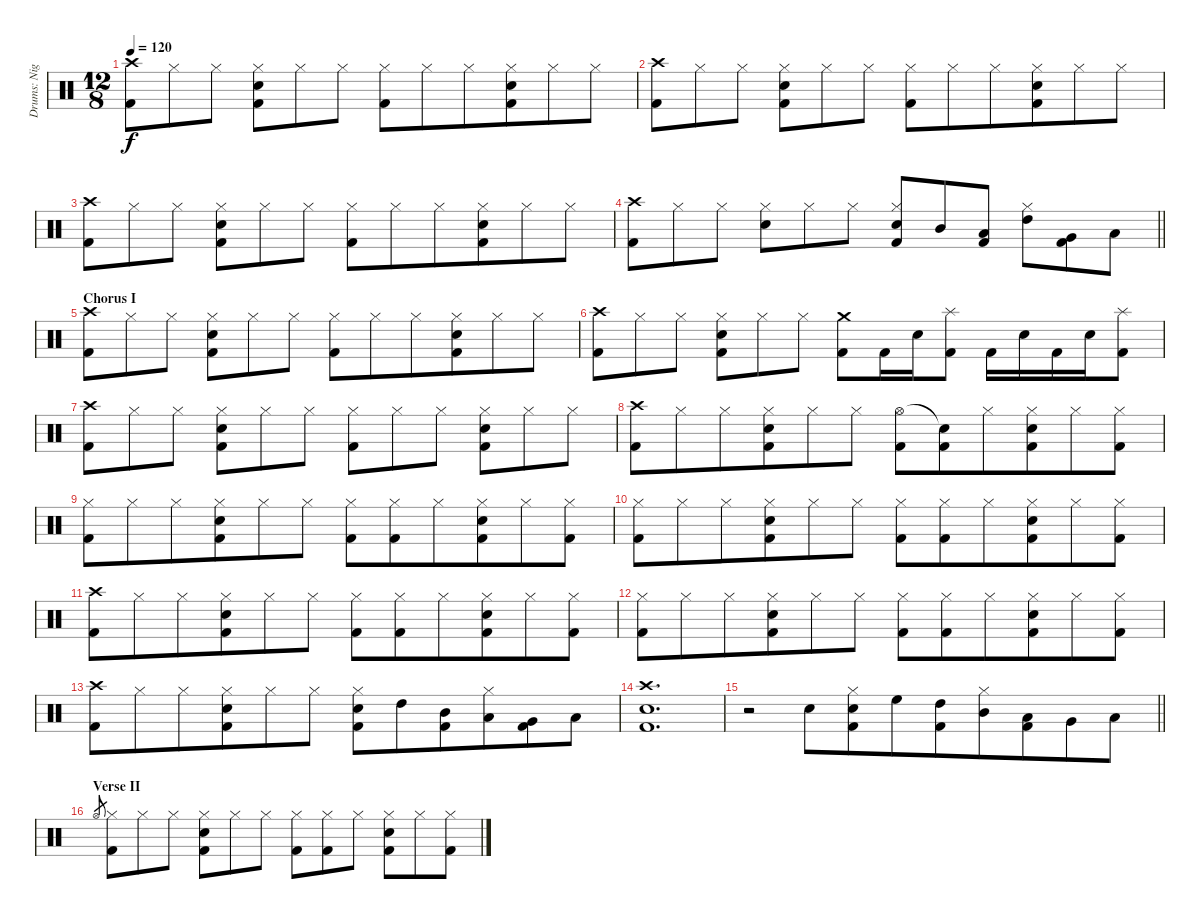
\track ("Drums: Nigel" "Drums: Nig") {instrument percussion}
\staff {score}
\articulation defaults
\ts (12 8)
\tempo 120
\clef neutral
\ks c
("Crash high (hit)" "Kick (hit) 2").8{dy f} "Hi-Hat (closed)".8{beam merge} "Hi-Hat (closed)".8 ("Hi-Hat (closed)" "Snare (hit) 2" "Kick (hit) 2").8{beam merge} "Hi-Hat (closed)".8 "Hi-Hat (closed)".8 ("Hi-Hat (closed)" "Kick (hit) 2").8 "Hi-Hat (closed)".8{beam merge} "Hi-Hat (closed)".8{beam merge} ("Hi-Hat (closed)" "Snare (hit) 2" "Kick (hit) 2").8{beam merge} "Hi-Hat (closed)".8 "Hi-Hat (closed)".8 |
("Crash high (hit)" "Kick (hit) 2").8 "Hi-Hat (closed)".8{beam merge} "Hi-Hat (closed)".8 ("Hi-Hat (closed)" "Snare (hit) 2" "Kick (hit) 2").8{beam merge} "Hi-Hat (closed)".8 "Hi-Hat (closed)".8 ("Hi-Hat (closed)" "Kick (hit) 2").8 "Hi-Hat (closed)".8{beam merge} "Hi-Hat (closed)".8{beam merge} ("Hi-Hat (closed)" "Snare (hit) 2" "Kick (hit) 2").8{beam merge} "Hi-Hat (closed)".8 "Hi-Hat (closed)".8 |
("Crash high (hit)" "Kick (hit) 2").8 "Hi-Hat (closed)".8{beam merge} "Hi-Hat (closed)".8 ("Hi-Hat (closed)" "Snare (hit) 2" "Kick (hit) 2").8{beam merge} "Hi-Hat (closed)".8 "Hi-Hat (closed)".8 ("Hi-Hat (closed)" "Kick (hit) 2").8 "Hi-Hat (closed)".8{beam merge} "Hi-Hat (closed)".8{beam merge} ("Hi-Hat (closed)" "Snare (hit) 2" "Kick (hit) 2").8{beam merge} "Hi-Hat (closed)".8 "Hi-Hat (closed)".8 |
\barLineRight lightlight
("Crash high (hit)" "Kick (hit) 2").8 "Hi-Hat (closed)".8 "Hi-Hat (closed)".8 ("Hi-Hat (closed)" "Snare (hit) 2").8 "Hi-Hat (closed)".8 "Hi-Hat (closed)".8 ("Hi-Hat (closed)" "Snare (hit) 2" "Kick (hit) 2").8 "Mid Tom (hit)".8 ("Low Tom (hit)" "Kick (hit) 2").8 ("Hi-Hat (closed)" "High Tom (hit)").8 ("Very Low Tom (hit)" "Kick (hit) 2").8 "Low Floor Tom (hit)".8 |
\section ("" "Chorus I")
("Crash high (hit)" "Kick (hit) 2").8 "Hi-Hat (closed)".8{beam merge} "Hi-Hat (closed)".8 ("Hi-Hat (closed)" "Snare (hit) 2" "Kick (hit) 2").8{beam merge} "Hi-Hat (closed)".8 "Hi-Hat (closed)".8 ("Hi-Hat (closed)" "Kick (hit) 2").8 "Hi-Hat (closed)".8{beam merge} "Hi-Hat (closed)".8{beam merge} ("Hi-Hat (closed)" "Snare (hit) 2" "Kick (hit) 2").8{beam merge} "Hi-Hat (closed)".8 "Hi-Hat (closed)".8 |
("Crash high (hit)" "Kick (hit) 2").8 "Hi-Hat (closed)".8{beam merge} "Hi-Hat (closed)".8 ("Hi-Hat (closed)" "Snare (hit) 2" "Kick (hit) 2").8{beam merge} "Hi-Hat (closed)".8 "Hi-Hat (closed)".8 ("Crash medium (hit)" "Kick (hit) 2").8 "Kick (hit) 2".16 "Snare (hit) 2".16 ("Splash (hit)" "Kick (hit) 2").8 "Kick (hit) 2".16 "Snare (hit) 2".16 "Kick (hit) 2".16 "Snare (hit) 2".16 ("Splash (hit)" "Kick (hit) 2").8 |
("Crash high (hit)" "Kick (hit) 2").8 "Hi-Hat (closed)".8{beam merge} "Hi-Hat (closed)".8 ("Hi-Hat (closed)" "Snare (hit) 2" "Kick (hit) 2").8{beam merge} "Hi-Hat (closed)".8 "Hi-Hat (closed)".8 ("Hi-Hat (closed)" "Kick (hit) 2").8 "Hi-Hat (closed)".8{beam merge} "Hi-Hat (closed)".8 ("Hi-Hat (closed)" "Snare (hit) 2" "Kick (hit) 2").8{beam merge} "Hi-Hat (closed)".8 "Hi-Hat (closed)".8 |
("Crash high (hit)" "Kick (hit) 2").8 "Hi-Hat (closed)".8{beam merge} "Hi-Hat (closed)".8{beam merge} ("Hi-Hat (closed)" "Snare (hit) 2" "Kick (hit) 2").8{beam merge} "Hi-Hat (closed)".8 "Hi-Hat (closed)".8 ("Hi-Hat (open)" "Kick (hit) 2").8 ("Snare (hit)"{t} "Kick (hit) 2").8{beam merge} "Hi-Hat (closed)".8{beam merge} ("Hi-Hat (closed)" "Snare (hit) 2" "Kick (hit) 2").8 "Hi-Hat (closed)".8 ("Hi-Hat (closed)" "Kick (hit) 2").8 |
("Hi-Hat (closed)" "Kick (hit) 2").8 "Hi-Hat (closed)".8{beam merge} "Hi-Hat (closed)".8{beam merge} ("Hi-Hat (closed)" "Snare (hit) 2" "Kick (hit) 2").8{beam merge} "Hi-Hat (closed)".8 "Hi-Hat (closed)".8 ("Hi-Hat (closed)" "Kick (hit) 2").8 ("Hi-Hat (closed)" "Kick (hit) 2").8{beam merge} "Hi-Hat (closed)".8{beam merge} ("Hi-Hat (closed)" "Snare (hit) 2" "Kick (hit) 2").8 "Hi-Hat (closed)".8 ("Hi-Hat (closed)" "Kick (hit) 2").8 |
("Hi-Hat (closed)" "Kick (hit) 2").8 "Hi-Hat (closed)".8{beam merge} "Hi-Hat (closed)".8{beam merge} ("Hi-Hat (closed)" "Snare (hit) 2" "Kick (hit) 2").8{beam merge} "Hi-Hat (closed)".8 "Hi-Hat (closed)".8 ("Hi-Hat (closed)" "Kick (hit) 2").8 ("Hi-Hat (closed)" "Kick (hit) 2").8{beam merge} "Hi-Hat (closed)".8{beam merge} ("Hi-Hat (closed)" "Snare (hit) 2" "Kick (hit) 2").8 "Hi-Hat (closed)".8 ("Hi-Hat (closed)" "Kick (hit) 2").8 |
("Crash high (hit)" "Kick (hit) 2").8 "Hi-Hat (closed)".8{beam merge} "Hi-Hat (closed)".8{beam merge} ("Hi-Hat (closed)" "Snare (hit) 2" "Kick (hit) 2").8{beam merge} "Hi-Hat (closed)".8 "Hi-Hat (closed)".8 ("Hi-Hat (closed)" "Kick (hit) 2").8 ("Hi-Hat (closed)" "Kick (hit) 2").8{beam merge} "Hi-Hat (closed)".8{beam merge} ("Hi-Hat (closed)" "Snare (hit) 2" "Kick (hit) 2").8 "Hi-Hat (closed)".8 ("Hi-Hat (closed)" "Kick (hit) 2").8 |
("Hi-Hat (closed)" "Kick (hit) 2").8 "Hi-Hat (closed)".8{beam merge} "Hi-Hat (closed)".8{beam merge} ("Hi-Hat (closed)" "Snare (hit) 2" "Kick (hit) 2").8{beam merge} "Hi-Hat (closed)".8 "Hi-Hat (closed)".8 ("Hi-Hat (closed)" "Kick (hit) 2").8 ("Hi-Hat (closed)" "Kick (hit) 2").8{beam merge} "Hi-Hat (closed)".8{beam merge} ("Hi-Hat (closed)" "Snare (hit) 2" "Kick (hit) 2").8 "Hi-Hat (closed)".8 ("Hi-Hat (closed)" "Kick (hit) 2").8 |
("Crash high (hit)" "Kick (hit) 2").8 "Hi-Hat (closed)".8{beam merge} "Hi-Hat (closed)".8{beam merge} ("Hi-Hat (closed)" "Snare (hit) 2" "Kick (hit) 2").8{beam merge} "Hi-Hat (closed)".8 "Hi-Hat (closed)".8 ("Hi-Hat (closed)" "Snare (hit) 2" "Kick (hit) 2").8 "High Tom (hit)".8{beam merge} ("Mid Tom (hit)" "Kick (hit) 2").8{beam merge} ("Hi-Hat (closed)" "Low Tom (hit)").8 ("Very Low Tom (hit)" "Kick (hit) 2").8 "Low Floor Tom (hit)".8 |
("Crash high (hit)" "Snare (hit) 2" "Kick (hit) 2").1{d} |
\barLineRight lightlight
r.2 "Snare (hit) 2".8 ("Hi-Hat (closed)" "Snare (hit) 2" "Kick (hit) 2").8{beam merge} "High Floor Tom (hit)".8 ("High Tom (hit)" "Kick (hit) 2").8 ("Hi-Hat (closed)" "Mid Tom (hit)").8{beam merge} ("Low Tom (hit)" "Kick (hit) 2").8 "Very Low Tom (hit)".8 "Low Floor Tom (hit)".8 |
\section ("" "Verse II")
"Hi-Hat (open)".8{gr} ("Hi-Hat (closed)" "Kick (hit) 2").8 "Hi-Hat (closed)".8{beam merge} "Hi-Hat (closed)".8 ("Hi-Hat (closed)" "Snare (hit) 2" "Kick (hit) 2").8{beam merge} "Hi-Hat (closed)".8 "Hi-Hat (closed)".8 ("Hi-Hat (closed)" "Kick (hit) 2").8 ("Hi-Hat (closed)" "Kick (hit) 2").8{beam merge} "Hi-Hat (closed)".8 ("Hi-Hat (closed)" "Snare (hit) 2" "Kick (hit) 2").8{beam merge} "Hi-Hat (closed)".8 ("Hi-Hat (closed)" "Kick (hit) 2").8
